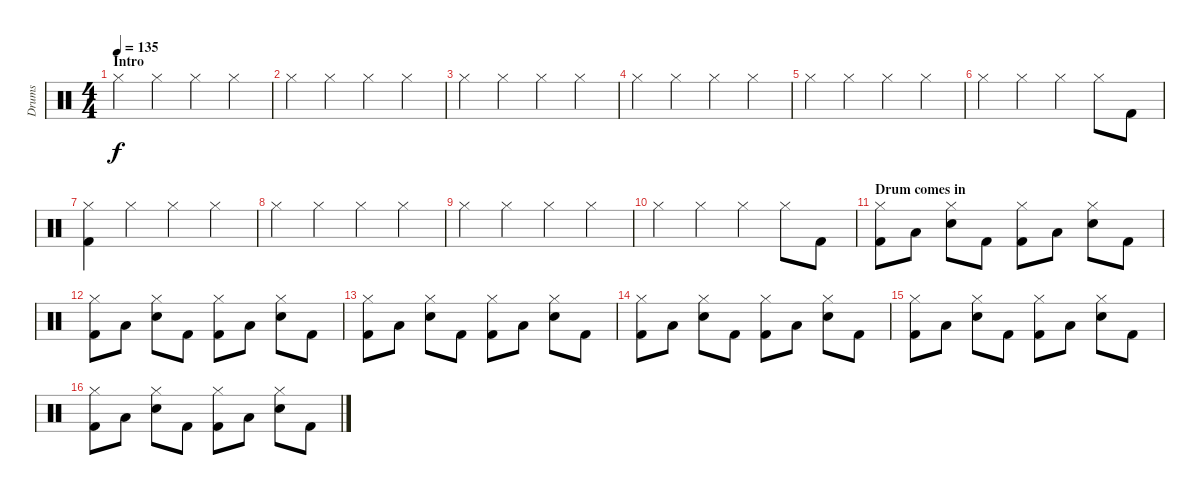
\track ("Drums" "Drums") {instrument percussion}
\staff {score}
\articulation defaults
\ts (4 4)
\section ("" "Intro")
\tempo 135
\clef neutral
\ks c "Hi-Hat (closed)".4{dy f} "Hi-Hat (closed)".4 "Hi-Hat (closed)".4 "Hi-Hat (closed)".4
|
"Hi-Hat (closed)".4 "Hi-Hat (closed)".4 "Hi-Hat (closed)".4 "Hi-Hat (closed)".4 |
"Hi-Hat (closed)".4 "Hi-Hat (closed)".4 "Hi-Hat (closed)".4 "Hi-Hat (closed)".4 |
"Hi-Hat (closed)".4 "Hi-Hat (closed)".4 "Hi-Hat (closed)".4 "Hi-Hat (closed)".4 |
"Hi-Hat (closed)".4 "Hi-Hat (closed)".4 "Hi-Hat (closed)".4 "Hi-Hat (closed)".4 |
"Hi-Hat (closed)".4 "Hi-Hat (closed)".4 "Hi-Hat (closed)".4 "Hi-Hat (closed)".8 "Kick (hit) 2".8 |
("Hi-Hat (closed)" "Kick (hit) 2").4 "Hi-Hat (closed)".4 "Hi-Hat (closed)".4 "Hi-Hat (closed)".4 |
"Hi-Hat (closed)".4 "Hi-Hat (closed)".4 "Hi-Hat (closed)".4 "Hi-Hat (closed)".4 |
"Hi-Hat (closed)".4 "Hi-Hat (closed)".4 "Hi-Hat (closed)".4 "Hi-Hat (closed)".4 |
"Hi-Hat (closed)".4 "Hi-Hat (closed)".4 "Hi-Hat (closed)".4 "Hi-Hat (closed)".8 "Kick (hit) 2".8 |
\section ("" "Drum comes in")
("Hi-Hat (closed)" "Kick (hit) 2").8 "Low Floor Tom (hit)".8 ("Hi-Hat (closed)" "Snare (hit) 2").8 "Kick (hit) 2".8 ("Hi-Hat (closed)" "Kick (hit) 2").8 "Low Floor Tom (hit)".8 ("Hi-Hat (closed)" "Snare (hit) 2").8 "Kick (hit) 2".8 |
("Hi-Hat (closed)" "Kick (hit) 2").8 "Low Floor Tom (hit)".8 ("Hi-Hat (closed)" "Snare (hit) 2").8 "Kick (hit) 2".8 ("Hi-Hat (closed)" "Kick (hit) 2").8 "Low Floor Tom (hit)".8 ("Hi-Hat (closed)" "Snare (hit) 2").8 "Kick (hit) 2".8 |
("Hi-Hat (closed)" "Kick (hit) 2").8 "Low Floor Tom (hit)".8 ("Hi-Hat (closed)" "Snare (hit) 2").8 "Kick (hit) 2".8 ("Hi-Hat (closed)" "Kick (hit) 2").8 "Low Floor Tom (hit)".8 ("Hi-Hat (closed)" "Snare (hit) 2").8 "Kick (hit) 2".8 |
("Hi-Hat (closed)" "Kick (hit) 2").8 "Low Floor Tom (hit)".8 ("Hi-Hat (closed)" "Snare (hit) 2").8 "Kick (hit) 2".8 ("Hi-Hat (closed)" "Kick (hit) 2").8 "Low Floor Tom (hit)".8 ("Hi-Hat (closed)" "Snare (hit) 2").8 "Kick (hit) 2".8 |
("Hi-Hat (closed)" "Kick (hit) 2").8 "Low Floor Tom (hit)".8 ("Hi-Hat (closed)" "Snare (hit) 2").8 "Kick (hit) 2".8 ("Hi-Hat (closed)" "Kick (hit) 2").8 "Low Floor Tom (hit)".8 ("Hi-Hat (closed)" "Snare (hit) 2").8 "Kick (hit) 2".8 |
("Hi-Hat (closed)" "Kick (hit) 2").8 "Low Floor Tom (hit)".8 ("Hi-Hat (closed)" "Snare (hit) 2").8 "Kick (hit) 2".8 ("Hi-Hat (closed)" "Kick (hit) 2").8 "Low Floor Tom (hit)".8 ("Hi-Hat (closed)" "Snare (hit) 2").8 "Kick (hit) 2".8
